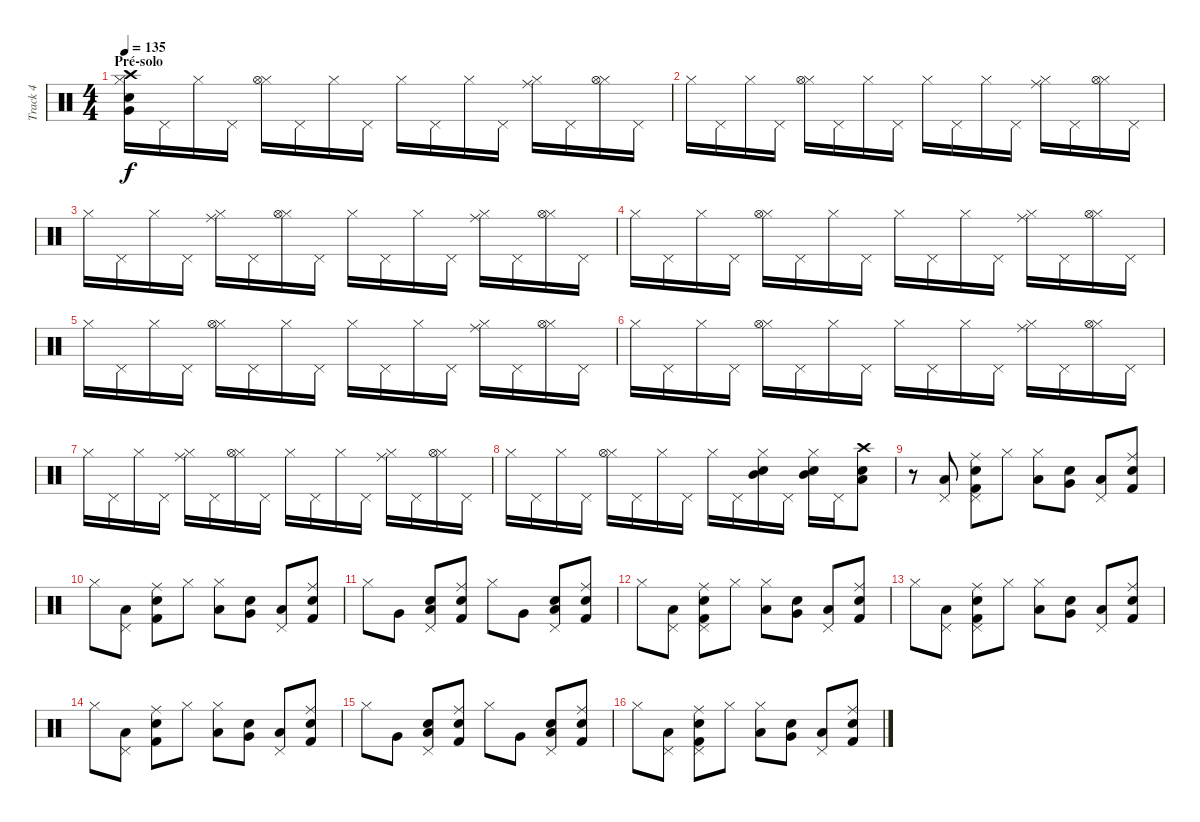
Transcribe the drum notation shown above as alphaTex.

\track ("Track 4" "Track 4") {instrument percussion}
\staff {score}
\articulation defaults
\ts (4 4)
\section ("" "Pré-solo")
\tempo 135
\clef neutral
\ks c
("Hi-Hat (closed)" "Snare (hit) 2" "Very Low Tom (hit)" "Crash high (hit)").16{dy f} "Pedal Hi-Hat (hit)".16 "Hi-Hat (closed)".16 "Pedal Hi-Hat (hit)".16 ("Hi-Hat (closed)" "Hi-Hat (open)").16 "Pedal Hi-Hat (hit)".16 "Hi-Hat (closed)".16 "Pedal Hi-Hat (hit)".16 "Hi-Hat (closed)".16 "Pedal Hi-Hat (hit)".16 "Hi-Hat (closed)".16 "Pedal Hi-Hat (hit)".16 ("Hi-Hat (closed)" "Ride (middle)").16 "Pedal Hi-Hat (hit)".16 ("Hi-Hat (closed)" "Hi-Hat (open)").16 "Pedal Hi-Hat (hit)".16 |
"Hi-Hat (closed)".16 "Pedal Hi-Hat (hit)".16 "Hi-Hat (closed)".16 "Pedal Hi-Hat (hit)".16 ("Hi-Hat (closed)" "Hi-Hat (open)").16 "Pedal Hi-Hat (hit)".16 "Hi-Hat (closed)".16 "Pedal Hi-Hat (hit)".16 "Hi-Hat (closed)".16 "Pedal Hi-Hat (hit)".16 "Hi-Hat (closed)".16 "Pedal Hi-Hat (hit)".16 ("Hi-Hat (closed)" "Ride (middle)").16 "Pedal Hi-Hat (hit)".16 ("Hi-Hat (closed)" "Hi-Hat (open)").16 "Pedal Hi-Hat (hit)".16 |
"Hi-Hat (closed)".16 "Pedal Hi-Hat (hit)".16 "Hi-Hat (closed)".16 "Pedal Hi-Hat (hit)".16 ("Hi-Hat (closed)" "Ride (middle)").16 "Pedal Hi-Hat (hit)".16 ("Hi-Hat (closed)" "Hi-Hat (open)").16 "Pedal Hi-Hat (hit)".16 "Hi-Hat (closed)".16 "Pedal Hi-Hat (hit)".16 "Hi-Hat (closed)".16 "Pedal Hi-Hat (hit)".16 ("Hi-Hat (closed)" "Ride (middle)").16 "Pedal Hi-Hat (hit)".16 ("Hi-Hat (closed)" "Hi-Hat (open)").16 "Pedal Hi-Hat (hit)".16 |
"Hi-Hat (closed)".16 "Pedal Hi-Hat (hit)".16 "Hi-Hat (closed)".16 "Pedal Hi-Hat (hit)".16 ("Hi-Hat (closed)" "Hi-Hat (open)").16 "Pedal Hi-Hat (hit)".16 "Hi-Hat (closed)".16 "Pedal Hi-Hat (hit)".16 "Hi-Hat (closed)".16 "Pedal Hi-Hat (hit)".16 "Hi-Hat (closed)".16 "Pedal Hi-Hat (hit)".16 ("Hi-Hat (closed)" "Ride (middle)").16 "Pedal Hi-Hat (hit)".16 ("Hi-Hat (closed)" "Hi-Hat (open)").16 "Pedal Hi-Hat (hit)".16 |
"Hi-Hat (closed)".16 "Pedal Hi-Hat (hit)".16 "Hi-Hat (closed)".16 "Pedal Hi-Hat (hit)".16 ("Hi-Hat (closed)" "Hi-Hat (open)").16 "Pedal Hi-Hat (hit)".16 "Hi-Hat (closed)".16 "Pedal Hi-Hat (hit)".16 "Hi-Hat (closed)".16 "Pedal Hi-Hat (hit)".16 "Hi-Hat (closed)".16 "Pedal Hi-Hat (hit)".16 ("Hi-Hat (closed)" "Ride (middle)").16 "Pedal Hi-Hat (hit)".16 ("Hi-Hat (closed)" "Hi-Hat (open)").16 "Pedal Hi-Hat (hit)".16 |
"Hi-Hat (closed)".16 "Pedal Hi-Hat (hit)".16 "Hi-Hat (closed)".16 "Pedal Hi-Hat (hit)".16 ("Hi-Hat (closed)" "Hi-Hat (open)").16 "Pedal Hi-Hat (hit)".16 "Hi-Hat (closed)".16 "Pedal Hi-Hat (hit)".16 "Hi-Hat (closed)".16 "Pedal Hi-Hat (hit)".16 "Hi-Hat (closed)".16 "Pedal Hi-Hat (hit)".16 ("Hi-Hat (closed)" "Ride (middle)").16 "Pedal Hi-Hat (hit)".16 ("Hi-Hat (closed)" "Hi-Hat (open)").16 "Pedal Hi-Hat (hit)".16 |
"Hi-Hat (closed)".16 "Pedal Hi-Hat (hit)".16 "Hi-Hat (closed)".16 "Pedal Hi-Hat (hit)".16 ("Hi-Hat (closed)" "Ride (middle)").16 "Pedal Hi-Hat (hit)".16 ("Hi-Hat (closed)" "Hi-Hat (open)").16 "Pedal Hi-Hat (hit)".16 "Hi-Hat (closed)".16 "Pedal Hi-Hat (hit)".16 "Hi-Hat (closed)".16 "Pedal Hi-Hat (hit)".16 ("Hi-Hat (closed)" "Ride (middle)").16 "Pedal Hi-Hat (hit)".16 ("Hi-Hat (closed)" "Hi-Hat (open)").16 "Pedal Hi-Hat (hit)".16 |
"Hi-Hat (closed)".16 "Pedal Hi-Hat (hit)".16 "Hi-Hat (closed)".16 "Pedal Hi-Hat (hit)".16 ("Hi-Hat (closed)" "Hi-Hat (open)").16 "Pedal Hi-Hat (hit)".16 "Hi-Hat (closed)".16 "Pedal Hi-Hat (hit)".16 "Hi-Hat (closed)".16 "Pedal Hi-Hat (hit)".16 ("Hi-Hat (closed)" "Mid Tom (hit)" "Electric Snare (hit)").16 "Pedal Hi-Hat (hit)".16 ("Hi-Hat (closed)" "Mid Tom (hit)" "Electric Snare (hit)").16 "Pedal Hi-Hat (hit)".16 ("Low Tom (hit)" "Snare (hit) 2" "Crash high (hit)").8 |
r.8 ("Low Floor Tom (hit)" "Pedal Hi-Hat (hit)").8 ("Kick (hit) 2" "Ride (middle)" "Pedal Hi-Hat (hit)" "Electric Snare (hit)").8 "Hi-Hat (closed)".8 ("Low Floor Tom (hit)" "Hi-Hat (closed)").8 ("Very Low Tom (hit)" "Electric Snare (hit)").8 ("Low Tom (hit)" "Pedal Hi-Hat (hit)").8 ("Ride (middle)" "Electric Snare (hit)" "Kick (hit) 2").8 |
"Hi-Hat (closed)".8 ("Low Floor Tom (hit)" "Pedal Hi-Hat (hit)").8 ("Kick (hit) 2" "Ride (middle)" "Electric Snare (hit)").8 "Hi-Hat (closed)".8 ("Low Floor Tom (hit)" "Hi-Hat (closed)").8 ("Very Low Tom (hit)" "Electric Snare (hit)").8 ("Low Tom (hit)" "Pedal Hi-Hat (hit)").8 ("Ride (middle)" "Electric Snare (hit)" "Kick (hit) 2").8 |
"Hi-Hat (closed)".8 "Very Low Tom (hit)".8 ("Low Tom (hit)" "Pedal Hi-Hat (hit)" "Electric Snare (hit)").8 ("Electric Snare (hit)" "Kick (hit) 2" "Ride (middle)").8 "Hi-Hat (closed)".8 "Very Low Tom (hit)".8 ("Low Tom (hit)" "Pedal Hi-Hat (hit)" "Electric Snare (hit)").8 ("Electric Snare (hit)" "Kick (hit) 2" "Ride (middle)").8 |
"Hi-Hat (closed)".8 ("Low Floor Tom (hit)" "Pedal Hi-Hat (hit)").8 ("Kick (hit) 2" "Ride (middle)" "Pedal Hi-Hat (hit)" "Electric Snare (hit)").8 "Hi-Hat (closed)".8 ("Low Floor Tom (hit)" "Hi-Hat (closed)").8 ("Very Low Tom (hit)" "Electric Snare (hit)").8 ("Low Tom (hit)" "Pedal Hi-Hat (hit)").8 ("Ride (middle)" "Electric Snare (hit)" "Kick (hit) 2").8 |
"Hi-Hat (closed)".8 ("Low Floor Tom (hit)" "Pedal Hi-Hat (hit)").8 ("Kick (hit) 2" "Ride (middle)" "Pedal Hi-Hat (hit)" "Electric Snare (hit)").8 "Hi-Hat (closed)".8 ("Low Floor Tom (hit)" "Hi-Hat (closed)").8 ("Very Low Tom (hit)" "Electric Snare (hit)").8 ("Low Tom (hit)" "Pedal Hi-Hat (hit)").8 ("Ride (middle)" "Electric Snare (hit)" "Kick (hit) 2").8 |
"Hi-Hat (closed)".8 ("Low Floor Tom (hit)" "Pedal Hi-Hat (hit)").8 ("Kick (hit) 2" "Ride (middle)" "Electric Snare (hit)").8 "Hi-Hat (closed)".8 ("Low Floor Tom (hit)" "Hi-Hat (closed)").8 ("Very Low Tom (hit)" "Electric Snare (hit)").8 ("Low Tom (hit)" "Pedal Hi-Hat (hit)").8 ("Ride (middle)" "Electric Snare (hit)" "Kick (hit) 2").8 |
"Hi-Hat (closed)".8 "Very Low Tom (hit)".8 ("Low Tom (hit)" "Pedal Hi-Hat (hit)" "Electric Snare (hit)").8 ("Electric Snare (hit)" "Kick (hit) 2" "Ride (middle)").8 "Hi-Hat (closed)".8 "Very Low Tom (hit)".8 ("Low Tom (hit)" "Pedal Hi-Hat (hit)" "Electric Snare (hit)").8 ("Electric Snare (hit)" "Kick (hit) 2" "Ride (middle)").8 |
"Hi-Hat (closed)".8 ("Low Floor Tom (hit)" "Pedal Hi-Hat (hit)").8 ("Kick (hit) 2" "Ride (middle)" "Pedal Hi-Hat (hit)" "Electric Snare (hit)").8 "Hi-Hat (closed)".8 ("Low Floor Tom (hit)" "Hi-Hat (closed)").8 ("Very Low Tom (hit)" "Electric Snare (hit)").8 ("Low Tom (hit)" "Pedal Hi-Hat (hit)").8 ("Ride (middle)" "Electric Snare (hit)" "Kick (hit) 2").8
